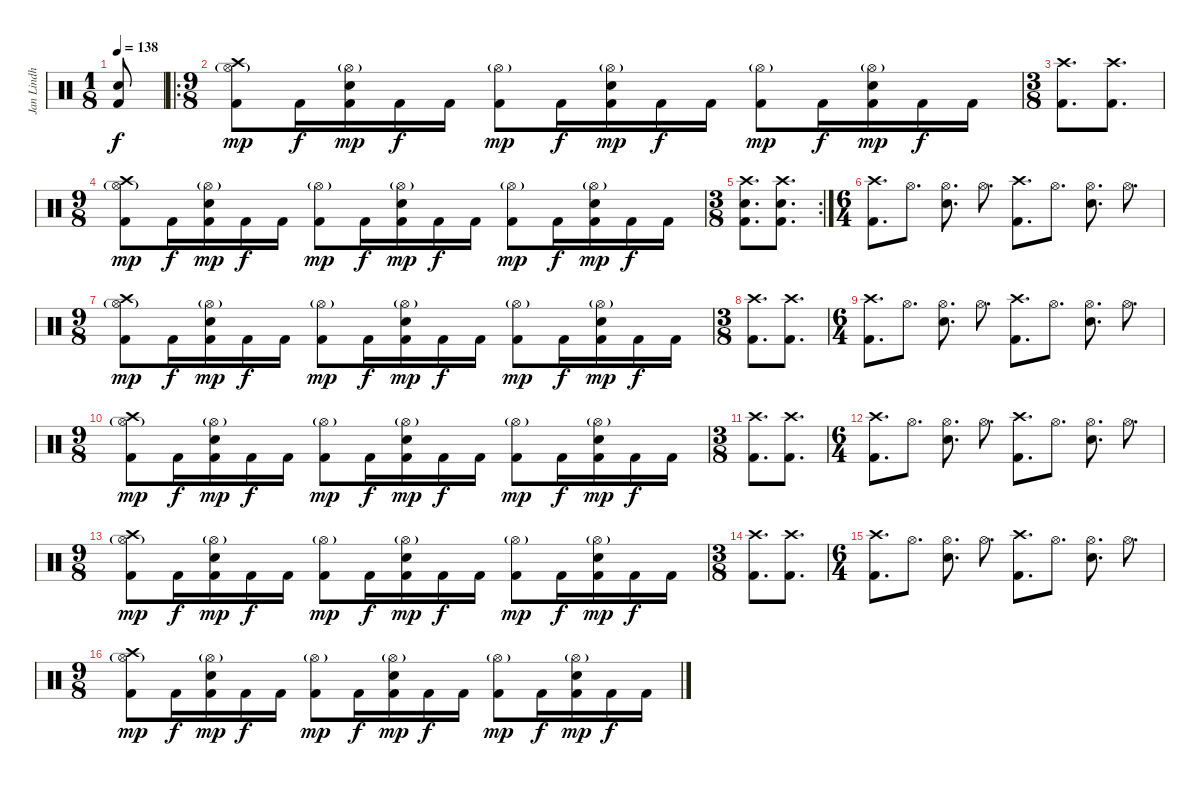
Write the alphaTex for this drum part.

\track ("Jan Lindh" "Jan Lindh") {instrument percussion}
\staff {score}
\articulation defaults
\ts (1 8)
\tempo 138
\clef neutral
\ks c
("Electric Snare (hit)" "Kick (hit) 2").8{dy f} |
\ro
\ts (9 8)
("Crash high (hit)" "Hi-Hat (open)"{g} "Kick (hit) 2").8{dy mp} "Kick (hit) 2".16{dy f} ("Hi-Hat (open)"{g} "Electric Snare (hit)" "Kick (hit) 2").16{dy mp} "Kick (hit) 2".16{dy f} "Kick (hit) 2".16 ("Hi-Hat (open)"{g} "Kick (hit) 2").8{dy mp} "Kick (hit) 2".16{dy f} ("Hi-Hat (open)"{g} "Electric Snare (hit)" "Kick (hit) 2").16{dy mp} "Kick (hit) 2".16{dy f} "Kick (hit) 2".16 ("Hi-Hat (open)"{g} "Kick (hit) 2").8{dy mp} "Kick (hit) 2".16{dy f} ("Hi-Hat (open)"{g} "Electric Snare (hit)" "Kick (hit) 2").16{dy mp} "Kick (hit) 2".16{dy f} "Kick (hit) 2".16 |
\ts (3 8)
("Crash high (hit)" "Kick (hit) 2").8{d} ("Crash high (hit)" "Kick (hit) 2").8{d} |
\ts (9 8)
("Crash high (hit)" "Hi-Hat (open)"{g} "Kick (hit) 2").8{dy mp} "Kick (hit) 2".16{dy f} ("Hi-Hat (open)"{g} "Electric Snare (hit)" "Kick (hit) 2").16{dy mp} "Kick (hit) 2".16{dy f} "Kick (hit) 2".16 ("Hi-Hat (open)"{g} "Kick (hit) 2").8{dy mp} "Kick (hit) 2".16{dy f} ("Hi-Hat (open)"{g} "Electric Snare (hit)" "Kick (hit) 2").16{dy mp} "Kick (hit) 2".16{dy f} "Kick (hit) 2".16 ("Hi-Hat (open)"{g} "Kick (hit) 2").8{dy mp} "Kick (hit) 2".16{dy f} ("Hi-Hat (open)"{g} "Electric Snare (hit)" "Kick (hit) 2").16{dy mp} "Kick (hit) 2".16{dy f} "Kick (hit) 2".16 |
\rc 2
\ts (3 8)
("Crash high (hit)" "Electric Snare (hit)" "Kick (hit) 2").8{d} ("Crash high (hit)" "Electric Snare (hit)" "Kick (hit) 2").8{d} |
\ts (6 4)
("Crash high (hit)" "Kick (hit) 2").8{d} "Hi-Hat (open)".8{d} ("Hi-Hat (open)" "Electric Snare (hit)").8{d} "Hi-Hat (open)".8{d} ("Crash high (hit)" "Kick (hit) 2").8{d} "Hi-Hat (open)".8{d} ("Hi-Hat (open)" "Electric Snare (hit)").8{d} "Hi-Hat (open)".8{d} |
\ts (9 8)
("Crash high (hit)" "Hi-Hat (open)"{g} "Kick (hit) 2").8{dy mp} "Kick (hit) 2".16{dy f} ("Hi-Hat (open)"{g} "Electric Snare (hit)" "Kick (hit) 2").16{dy mp} "Kick (hit) 2".16{dy f} "Kick (hit) 2".16 ("Hi-Hat (open)"{g} "Kick (hit) 2").8{dy mp} "Kick (hit) 2".16{dy f} ("Hi-Hat (open)"{g} "Electric Snare (hit)" "Kick (hit) 2").16{dy mp} "Kick (hit) 2".16{dy f} "Kick (hit) 2".16 ("Hi-Hat (open)"{g} "Kick (hit) 2").8{dy mp} "Kick (hit) 2".16{dy f} ("Hi-Hat (open)"{g} "Electric Snare (hit)" "Kick (hit) 2").16{dy mp} "Kick (hit) 2".16{dy f} "Kick (hit) 2".16 |
\ts (3 8)
("Crash high (hit)" "Kick (hit) 2").8{d} ("Crash high (hit)" "Kick (hit) 2").8{d} |
\ts (6 4)
("Crash high (hit)" "Kick (hit) 2").8{d} "Hi-Hat (open)".8{d} ("Hi-Hat (open)" "Electric Snare (hit)").8{d} "Hi-Hat (open)".8{d} ("Crash high (hit)" "Kick (hit) 2").8{d} "Hi-Hat (open)".8{d} ("Hi-Hat (open)" "Electric Snare (hit)").8{d} "Hi-Hat (open)".8{d} |
\ts (9 8)
("Crash high (hit)" "Hi-Hat (open)"{g} "Kick (hit) 2").8{dy mp} "Kick (hit) 2".16{dy f} ("Hi-Hat (open)"{g} "Electric Snare (hit)" "Kick (hit) 2").16{dy mp} "Kick (hit) 2".16{dy f} "Kick (hit) 2".16 ("Hi-Hat (open)"{g} "Kick (hit) 2").8{dy mp} "Kick (hit) 2".16{dy f} ("Hi-Hat (open)"{g} "Electric Snare (hit)" "Kick (hit) 2").16{dy mp} "Kick (hit) 2".16{dy f} "Kick (hit) 2".16 ("Hi-Hat (open)"{g} "Kick (hit) 2").8{dy mp} "Kick (hit) 2".16{dy f} ("Hi-Hat (open)"{g} "Electric Snare (hit)" "Kick (hit) 2").16{dy mp} "Kick (hit) 2".16{dy f} "Kick (hit) 2".16 |
\ts (3 8)
("Crash high (hit)" "Kick (hit) 2").8{d} ("Crash high (hit)" "Kick (hit) 2").8{d} |
\ts (6 4)
("Crash high (hit)" "Kick (hit) 2").8{d} "Hi-Hat (open)".8{d} ("Hi-Hat (open)" "Electric Snare (hit)").8{d} "Hi-Hat (open)".8{d} ("Crash high (hit)" "Kick (hit) 2").8{d} "Hi-Hat (open)".8{d} ("Hi-Hat (open)" "Electric Snare (hit)").8{d} "Hi-Hat (open)".8{d} |
\ts (9 8)
("Crash high (hit)" "Hi-Hat (open)"{g} "Kick (hit) 2").8{dy mp} "Kick (hit) 2".16{dy f} ("Hi-Hat (open)"{g} "Electric Snare (hit)" "Kick (hit) 2").16{dy mp} "Kick (hit) 2".16{dy f} "Kick (hit) 2".16 ("Hi-Hat (open)"{g} "Kick (hit) 2").8{dy mp} "Kick (hit) 2".16{dy f} ("Hi-Hat (open)"{g} "Electric Snare (hit)" "Kick (hit) 2").16{dy mp} "Kick (hit) 2".16{dy f} "Kick (hit) 2".16 ("Hi-Hat (open)"{g} "Kick (hit) 2").8{dy mp} "Kick (hit) 2".16{dy f} ("Hi-Hat (open)"{g} "Electric Snare (hit)" "Kick (hit) 2").16{dy mp} "Kick (hit) 2".16{dy f} "Kick (hit) 2".16 |
\ts (3 8)
("Crash high (hit)" "Kick (hit) 2").8{d} ("Crash high (hit)" "Kick (hit) 2").8{d} |
\ts (6 4)
("Crash high (hit)" "Kick (hit) 2").8{d} "Hi-Hat (open)".8{d} ("Hi-Hat (open)" "Electric Snare (hit)").8{d} "Hi-Hat (open)".8{d} ("Crash high (hit)" "Kick (hit) 2").8{d} "Hi-Hat (open)".8{d} ("Hi-Hat (open)" "Electric Snare (hit)").8{d} "Hi-Hat (open)".8{d} |
\ts (9 8)
("Crash high (hit)" "Hi-Hat (open)"{g} "Kick (hit) 2").8{dy mp} "Kick (hit) 2".16{dy f} ("Hi-Hat (open)"{g} "Electric Snare (hit)" "Kick (hit) 2").16{dy mp} "Kick (hit) 2".16{dy f} "Kick (hit) 2".16 ("Hi-Hat (open)"{g} "Kick (hit) 2").8{dy mp} "Kick (hit) 2".16{dy f} ("Hi-Hat (open)"{g} "Electric Snare (hit)" "Kick (hit) 2").16{dy mp} "Kick (hit) 2".16{dy f} "Kick (hit) 2".16 ("Hi-Hat (open)"{g} "Kick (hit) 2").8{dy mp} "Kick (hit) 2".16{dy f} ("Hi-Hat (open)"{g} "Electric Snare (hit)" "Kick (hit) 2").16{dy mp} "Kick (hit) 2".16{dy f} "Kick (hit) 2".16
